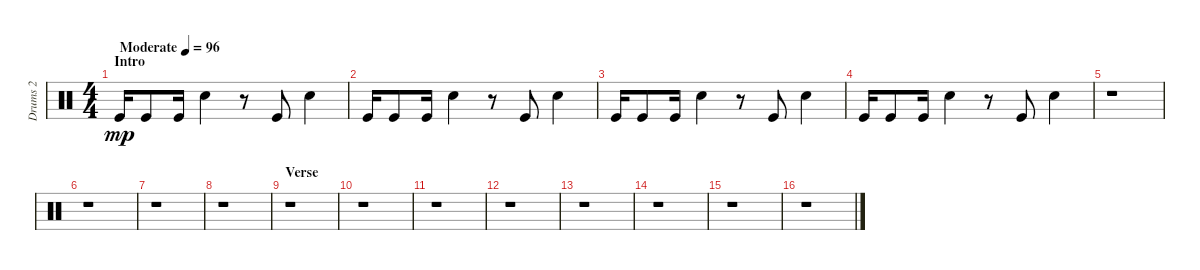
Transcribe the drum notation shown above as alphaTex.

\track ("Drums 2" "Drums 2") {instrument percussion}
\staff {score}
\articulation defaults
\ts (4 4)
\section ("" "Intro")
\tempo (96 "Moderate")
\clef neutral
\ks c "Kick (hit)".16{dy mp} "Kick (hit)".8 "Kick (hit)".16 "Electric Snare (hit)".4
r.8 "Kick (hit)".8 "Electric Snare (hit)".4 |
"Kick (hit)".16 "Kick (hit)".8 "Kick (hit)".16 "Electric Snare (hit)".4 r.8 "Kick (hit)".8 "Electric Snare (hit)".4 |
"Kick (hit)".16 "Kick (hit)".8 "Kick (hit)".16 "Electric Snare (hit)".4 r.8 "Kick (hit)".8 "Electric Snare (hit)".4 |
"Kick (hit)".16 "Kick (hit)".8 "Kick (hit)".16 "Electric Snare (hit)".4 r.8 "Kick (hit)".8 "Electric Snare (hit)".4 |
r.1 |
r.1 |
r.1 |
r.1 |
\section ("" "Verse")
r.1 |
r.1 |
r.1 |
r.1 |
r.1 |
r.1 |
r.1 |
r.1
